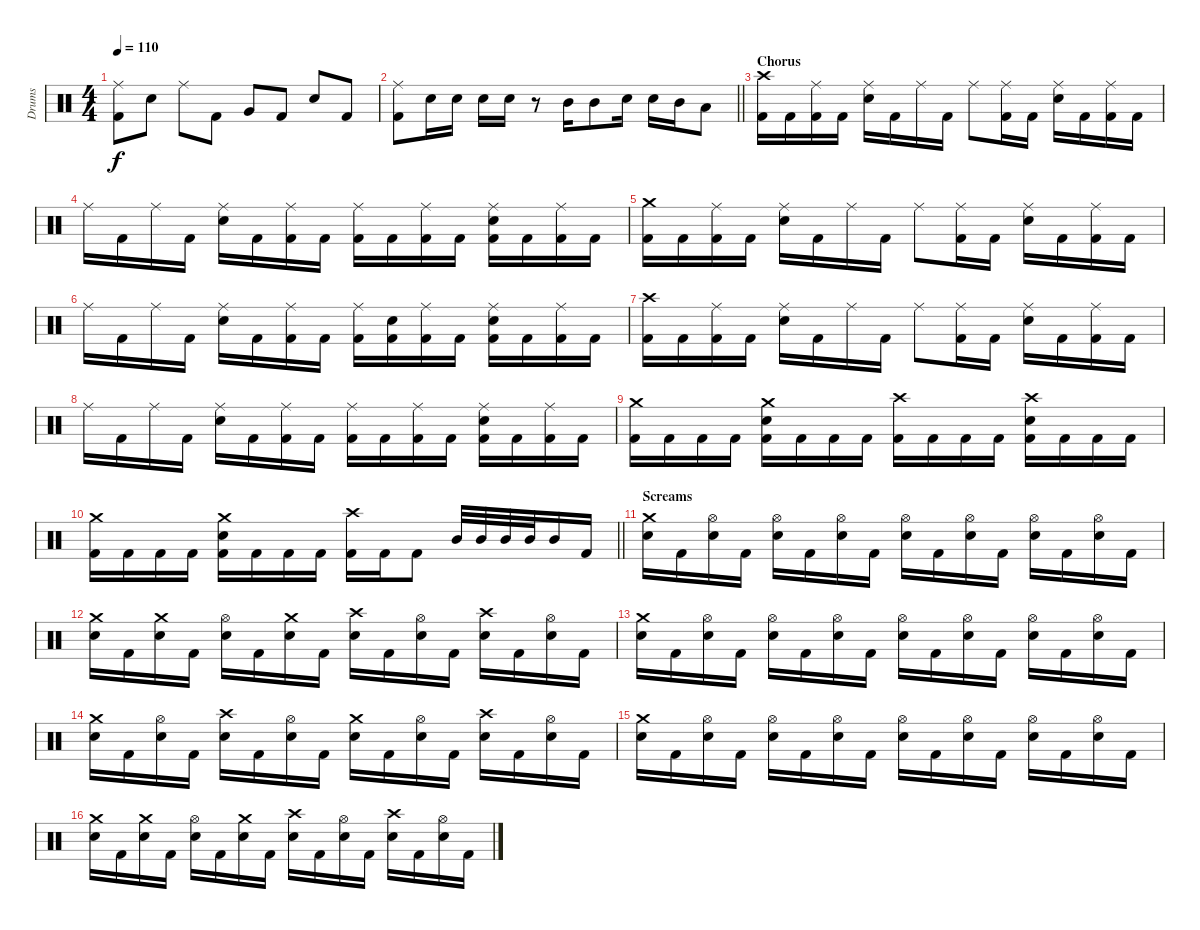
\track ("Drums" "Drums") {instrument percussion}
\staff {score}
\articulation defaults
\ts (4 4)
\tempo 110
\clef neutral
\ks c
("Ride (middle)" "Kick (hit) 2").8{dy f} "Electric Snare (hit)".8 "Ride (middle)".8 "Kick (hit) 2".8 "Very Low Tom (hit)".8 "Kick (hit) 2".8 "Electric Snare (hit)".8 "Kick (hit) 2".8 |
\barLineRight lightlight
("Ride (middle)" "Kick (hit) 2").8 "Electric Snare (hit)".16 "Electric Snare (hit)".16 "Electric Snare (hit)".16 "Electric Snare (hit)".16 r.8 "Mid Tom (hit)".16 "Mid Tom (hit)".8 "Electric Snare (hit)".16 "Electric Snare (hit)".16 "Mid Tom (hit)".16 "Low Tom (hit)".8 |
\section ("" "Chorus")
("Crash high (hit)" "Kick (hit) 2").16 "Kick (hit) 2".16 ("Ride (middle)" "Kick (hit) 2").16 "Kick (hit) 2".16 ("Ride (middle)" "Electric Snare (hit)").16 "Kick (hit) 2".16 "Ride (middle)".16 "Kick (hit) 2".16 "Ride (middle)".8 ("Ride (middle)" "Kick (hit) 2").16 "Kick (hit) 2".16 ("Ride (middle)" "Electric Snare (hit)").16 "Kick (hit) 2".16 ("Ride (middle)" "Kick (hit) 2").16 "Kick (hit) 2".16 |
"Ride (middle)".16 "Kick (hit) 2".16 "Ride (middle)".16 "Kick (hit) 2".16 ("Ride (middle)" "Electric Snare (hit)").16 "Kick (hit) 2".16 ("Ride (middle)" "Kick (hit) 2").16 "Kick (hit) 2".16 ("Ride (middle)" "Kick (hit) 2").16 "Kick (hit) 2".16 ("Ride (middle)" "Kick (hit) 2").16 "Kick (hit) 2".16 ("Ride (middle)" "Electric Snare (hit)" "Kick (hit) 2").16 "Kick (hit) 2".16 ("Ride (middle)" "Kick (hit) 2").16 "Kick (hit) 2".16 |
("Crash medium (hit)" "Kick (hit) 2").16 "Kick (hit) 2".16 ("Ride (middle)" "Kick (hit) 2").16 "Kick (hit) 2".16 ("Ride (middle)" "Electric Snare (hit)").16 "Kick (hit) 2".16 "Ride (middle)".16 "Kick (hit) 2".16 "Ride (middle)".8 ("Ride (middle)" "Kick (hit) 2").16 "Kick (hit) 2".16 ("Ride (middle)" "Electric Snare (hit)").16 "Kick (hit) 2".16 ("Ride (middle)" "Kick (hit) 2").16 "Kick (hit) 2".16 |
"Ride (middle)".16 "Kick (hit) 2".16 "Ride (middle)".16 "Kick (hit) 2".16 ("Ride (middle)" "Electric Snare (hit)").16 "Kick (hit) 2".16 ("Ride (middle)" "Kick (hit) 2").16 "Kick (hit) 2".16 ("Ride (middle)" "Kick (hit) 2").16 ("Electric Snare (hit)" "Kick (hit) 2").16 ("Ride (middle)" "Kick (hit) 2").16 "Kick (hit) 2".16 ("Ride (middle)" "Electric Snare (hit)" "Kick (hit) 2").16 "Kick (hit) 2".16 ("Ride (middle)" "Kick (hit) 2").16 "Kick (hit) 2".16 |
("Crash high (hit)" "Kick (hit) 2").16 "Kick (hit) 2".16 ("Ride (middle)" "Kick (hit) 2").16 "Kick (hit) 2".16 ("Ride (middle)" "Electric Snare (hit)").16 "Kick (hit) 2".16 "Ride (middle)".16 "Kick (hit) 2".16 "Ride (middle)".8 ("Ride (middle)" "Kick (hit) 2").16 "Kick (hit) 2".16 ("Ride (middle)" "Electric Snare (hit)").16 "Kick (hit) 2".16 ("Ride (middle)" "Kick (hit) 2").16 "Kick (hit) 2".16 |
"Ride (middle)".16 "Kick (hit) 2".16 "Ride (middle)".16 "Kick (hit) 2".16 ("Ride (middle)" "Electric Snare (hit)").16 "Kick (hit) 2".16 ("Ride (middle)" "Kick (hit) 2").16 "Kick (hit) 2".16 ("Ride (middle)" "Kick (hit) 2").16 "Kick (hit) 2".16 ("Ride (middle)" "Kick (hit) 2").16 "Kick (hit) 2".16 ("Ride (middle)" "Electric Snare (hit)" "Kick (hit) 2").16 "Kick (hit) 2".16 ("Ride (middle)" "Kick (hit) 2").16 "Kick (hit) 2".16 |
("Crash medium (hit)" "Kick (hit) 2").16 "Kick (hit) 2".16 "Kick (hit) 2".16 "Kick (hit) 2".16 ("Crash medium (hit)" "Electric Snare (hit)" "Kick (hit) 2").16 "Kick (hit) 2".16 "Kick (hit) 2".16 "Kick (hit) 2".16 ("Crash high (hit)" "Kick (hit) 2").16 "Kick (hit) 2".16 "Kick (hit) 2".16 "Kick (hit) 2".16 ("Crash high (hit)" "Electric Snare (hit)" "Kick (hit) 2").16 "Kick (hit) 2".16 "Kick (hit) 2".16 "Kick (hit) 2".16 |
\barLineRight lightlight
("Crash medium (hit)" "Kick (hit) 2").16 "Kick (hit) 2".16 "Kick (hit) 2".16 "Kick (hit) 2".16 ("Crash medium (hit)" "Electric Snare (hit)" "Kick (hit) 2").16 "Kick (hit) 2".16 "Kick (hit) 2".16 "Kick (hit) 2".16 ("Crash high (hit)" "Kick (hit) 2").16 "Kick (hit) 2".16 "Kick (hit) 2".8 "Mid Tom (hit)".32 "Mid Tom (hit)".32 "Mid Tom (hit)".32 "Mid Tom (hit)".32 "Mid Tom (hit)".16 "Kick (hit) 2".16 |
\section ("" "Screams")
("Crash medium (hit)" "Electric Snare (hit)").16 "Kick (hit) 2".16 ("Hi-Hat (open)" "Electric Snare (hit)").16 "Kick (hit) 2".16 ("Hi-Hat (open)" "Electric Snare (hit)").16 "Kick (hit) 2".16 ("Hi-Hat (open)" "Electric Snare (hit)").16 "Kick (hit) 2".16 ("Hi-Hat (open)" "Electric Snare (hit)").16 "Kick (hit) 2".16 ("Hi-Hat (open)" "Electric Snare (hit)").16 "Kick (hit) 2".16 ("Hi-Hat (open)" "Electric Snare (hit)").16 "Kick (hit) 2".16 ("Hi-Hat (open)" "Electric Snare (hit)").16 "Kick (hit) 2".16 |
("Crash medium (hit)" "Electric Snare (hit)").16 "Kick (hit) 2".16 ("Crash medium (hit)" "Electric Snare (hit)").16 "Kick (hit) 2".16 ("Hi-Hat (open)" "Electric Snare (hit)").16 "Kick (hit) 2".16 ("Crash medium (hit)" "Electric Snare (hit)").16 "Kick (hit) 2".16 ("Crash high (hit)" "Electric Snare (hit)").16 "Kick (hit) 2".16 ("Hi-Hat (open)" "Electric Snare (hit)").16 "Kick (hit) 2".16 ("Crash high (hit)" "Electric Snare (hit)").16 "Kick (hit) 2".16 ("Hi-Hat (open)" "Electric Snare (hit)").16 "Kick (hit) 2".16 |
("Crash medium (hit)" "Electric Snare (hit)").16 "Kick (hit) 2".16 ("Hi-Hat (open)" "Electric Snare (hit)").16 "Kick (hit) 2".16 ("Hi-Hat (open)" "Electric Snare (hit)").16 "Kick (hit) 2".16 ("Hi-Hat (open)" "Electric Snare (hit)").16 "Kick (hit) 2".16 ("Hi-Hat (open)" "Electric Snare (hit)").16 "Kick (hit) 2".16 ("Hi-Hat (open)" "Electric Snare (hit)").16 "Kick (hit) 2".16 ("Hi-Hat (open)" "Electric Snare (hit)").16 "Kick (hit) 2".16 ("Hi-Hat (open)" "Electric Snare (hit)").16 "Kick (hit) 2".16 |
("Crash medium (hit)" "Electric Snare (hit)").16 "Kick (hit) 2".16 ("Hi-Hat (open)" "Electric Snare (hit)").16 "Kick (hit) 2".16 ("Crash high (hit)" "Electric Snare (hit)").16 "Kick (hit) 2".16 ("Hi-Hat (open)" "Electric Snare (hit)").16 "Kick (hit) 2".16 ("Crash medium (hit)" "Electric Snare (hit)").16 "Kick (hit) 2".16 ("Hi-Hat (open)" "Electric Snare (hit)").16 "Kick (hit) 2".16 ("Crash high (hit)" "Electric Snare (hit)").16 "Kick (hit) 2".16 ("Hi-Hat (open)" "Electric Snare (hit)").16 "Kick (hit) 2".16 |
("Crash medium (hit)" "Electric Snare (hit)").16 "Kick (hit) 2".16 ("Hi-Hat (open)" "Electric Snare (hit)").16 "Kick (hit) 2".16 ("Hi-Hat (open)" "Electric Snare (hit)").16 "Kick (hit) 2".16 ("Hi-Hat (open)" "Electric Snare (hit)").16 "Kick (hit) 2".16 ("Hi-Hat (open)" "Electric Snare (hit)").16 "Kick (hit) 2".16 ("Hi-Hat (open)" "Electric Snare (hit)").16 "Kick (hit) 2".16 ("Hi-Hat (open)" "Electric Snare (hit)").16 "Kick (hit) 2".16 ("Hi-Hat (open)" "Electric Snare (hit)").16 "Kick (hit) 2".16 |
("Crash medium (hit)" "Electric Snare (hit)").16 "Kick (hit) 2".16 ("Crash medium (hit)" "Electric Snare (hit)").16 "Kick (hit) 2".16 ("Hi-Hat (open)" "Electric Snare (hit)").16 "Kick (hit) 2".16 ("Crash medium (hit)" "Electric Snare (hit)").16 "Kick (hit) 2".16 ("Crash high (hit)" "Electric Snare (hit)").16 "Kick (hit) 2".16 ("Hi-Hat (open)" "Electric Snare (hit)").16 "Kick (hit) 2".16 ("Crash high (hit)" "Electric Snare (hit)").16 "Kick (hit) 2".16 ("Hi-Hat (open)" "Electric Snare (hit)").16 "Kick (hit) 2".16
